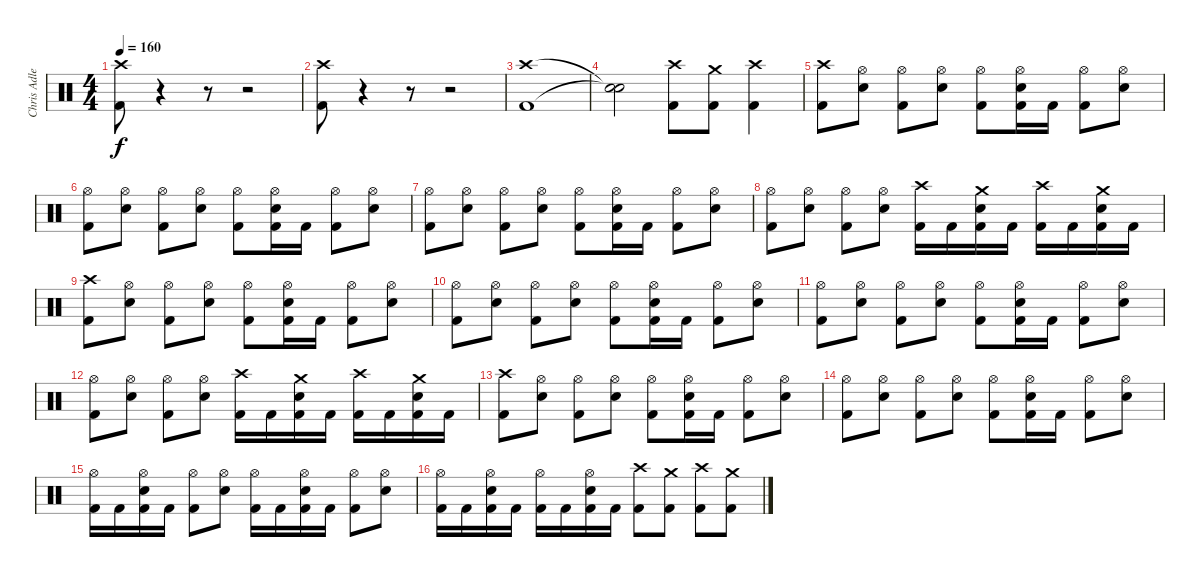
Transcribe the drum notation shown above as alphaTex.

\track ("Chris Adler" "Chris Adle") {instrument percussion}
\staff {score}
\articulation defaults
\ts (4 4)
\tempo 160
\clef neutral
\ks c
("Crash high (hit)" "Kick (hit) 2").8{dy f} r.4{volume 0} r.8 r.2 |
("Crash high (hit)" "Kick (hit) 2").8{volume 16} r.4{volume 0} r.8 r.2 |
("Crash high (hit)" "Kick (hit) 2").1{volume 16} |
("Snare (hit)"{t} "Snare (hit)"{t}).2 ("Crash high (hit)" "Kick (hit) 2").8 ("Crash medium (hit)" "Kick (hit) 2").8 ("Crash high (hit)" "Kick (hit) 2").4 |
("Crash high (hit)" "Kick (hit) 2").8 ("Hi-Hat (open)" "Electric Snare (hit)").8 ("Hi-Hat (open)" "Kick (hit) 2").8 ("Hi-Hat (open)" "Electric Snare (hit)").8 ("Hi-Hat (open)" "Kick (hit) 2").8 ("Hi-Hat (open)" "Electric Snare (hit)" "Kick (hit) 2").16 "Kick (hit) 2".16 ("Hi-Hat (open)" "Kick (hit) 2").8 ("Hi-Hat (open)" "Electric Snare (hit)").8 |
("Hi-Hat (open)" "Kick (hit) 2").8 ("Hi-Hat (open)" "Electric Snare (hit)").8 ("Hi-Hat (open)" "Kick (hit) 2").8 ("Hi-Hat (open)" "Electric Snare (hit)").8 ("Hi-Hat (open)" "Kick (hit) 2").8 ("Hi-Hat (open)" "Electric Snare (hit)" "Kick (hit) 2").16 "Kick (hit) 2".16 ("Hi-Hat (open)" "Kick (hit) 2").8 ("Hi-Hat (open)" "Electric Snare (hit)").8 |
("Hi-Hat (open)" "Kick (hit) 2").8 ("Hi-Hat (open)" "Electric Snare (hit)").8 ("Hi-Hat (open)" "Kick (hit) 2").8 ("Hi-Hat (open)" "Electric Snare (hit)").8 ("Hi-Hat (open)" "Kick (hit) 2").8 ("Hi-Hat (open)" "Electric Snare (hit)" "Kick (hit) 2").16 "Kick (hit) 2".16 ("Hi-Hat (open)" "Kick (hit) 2").8 ("Hi-Hat (open)" "Electric Snare (hit)").8 |
("Hi-Hat (open)" "Kick (hit) 2").8 ("Hi-Hat (open)" "Electric Snare (hit)").8 ("Hi-Hat (open)" "Kick (hit) 2").8 ("Hi-Hat (open)" "Electric Snare (hit)").8 ("Crash high (hit)" "Kick (hit) 2").16 "Kick (hit) 2".16 ("Crash medium (hit)" "Electric Snare (hit)" "Kick (hit) 2").16 "Kick (hit) 2".16 ("Crash high (hit)" "Kick (hit) 2").16 "Kick (hit) 2".16 ("Crash medium (hit)" "Electric Snare (hit)" "Kick (hit) 2").16 "Kick (hit) 2".16 |
("Crash high (hit)" "Kick (hit) 2").8 ("Hi-Hat (open)" "Electric Snare (hit)").8 ("Hi-Hat (open)" "Kick (hit) 2").8 ("Hi-Hat (open)" "Electric Snare (hit)").8 ("Hi-Hat (open)" "Kick (hit) 2").8 ("Hi-Hat (open)" "Electric Snare (hit)" "Kick (hit) 2").16 "Kick (hit) 2".16 ("Hi-Hat (open)" "Kick (hit) 2").8 ("Hi-Hat (open)" "Electric Snare (hit)").8 |
("Hi-Hat (open)" "Kick (hit) 2").8 ("Hi-Hat (open)" "Electric Snare (hit)").8 ("Hi-Hat (open)" "Kick (hit) 2").8 ("Hi-Hat (open)" "Electric Snare (hit)").8 ("Hi-Hat (open)" "Kick (hit) 2").8 ("Hi-Hat (open)" "Electric Snare (hit)" "Kick (hit) 2").16 "Kick (hit) 2".16 ("Hi-Hat (open)" "Kick (hit) 2").8 ("Hi-Hat (open)" "Electric Snare (hit)").8 |
("Hi-Hat (open)" "Kick (hit) 2").8 ("Hi-Hat (open)" "Electric Snare (hit)").8 ("Hi-Hat (open)" "Kick (hit) 2").8 ("Hi-Hat (open)" "Electric Snare (hit)").8 ("Hi-Hat (open)" "Kick (hit) 2").8 ("Hi-Hat (open)" "Electric Snare (hit)" "Kick (hit) 2").16 "Kick (hit) 2".16 ("Hi-Hat (open)" "Kick (hit) 2").8 ("Hi-Hat (open)" "Electric Snare (hit)").8 |
("Hi-Hat (open)" "Kick (hit) 2").8 ("Hi-Hat (open)" "Electric Snare (hit)").8 ("Hi-Hat (open)" "Kick (hit) 2").8 ("Hi-Hat (open)" "Electric Snare (hit)").8 ("Crash high (hit)" "Kick (hit) 2").16 "Kick (hit) 2".16 ("Crash medium (hit)" "Electric Snare (hit)" "Kick (hit) 2").16 "Kick (hit) 2".16 ("Crash high (hit)" "Kick (hit) 2").16 "Kick (hit) 2".16 ("Crash medium (hit)" "Electric Snare (hit)" "Kick (hit) 2").16 "Kick (hit) 2".16 |
("Crash high (hit)" "Kick (hit) 2").8 ("Hi-Hat (open)" "Electric Snare (hit)").8 ("Hi-Hat (open)" "Kick (hit) 2").8 ("Hi-Hat (open)" "Electric Snare (hit)").8 ("Hi-Hat (open)" "Kick (hit) 2").8 ("Hi-Hat (open)" "Electric Snare (hit)" "Kick (hit) 2").16 "Kick (hit) 2".16 ("Hi-Hat (open)" "Kick (hit) 2").8 ("Hi-Hat (open)" "Electric Snare (hit)").8 |
("Hi-Hat (open)" "Kick (hit) 2").8 ("Hi-Hat (open)" "Electric Snare (hit)").8 ("Hi-Hat (open)" "Kick (hit) 2").8 ("Hi-Hat (open)" "Electric Snare (hit)").8 ("Hi-Hat (open)" "Kick (hit) 2").8 ("Hi-Hat (open)" "Electric Snare (hit)" "Kick (hit) 2").16 "Kick (hit) 2".16 ("Hi-Hat (open)" "Kick (hit) 2").8 ("Hi-Hat (open)" "Electric Snare (hit)").8 |
("Hi-Hat (open)" "Kick (hit) 2").16 "Kick (hit) 2".16 ("Hi-Hat (open)" "Electric Snare (hit)" "Kick (hit) 2").16 "Kick (hit) 2".16 ("Hi-Hat (open)" "Kick (hit) 2").8 ("Hi-Hat (open)" "Electric Snare (hit)").8 ("Hi-Hat (open)" "Kick (hit) 2").16 "Kick (hit) 2".16 ("Hi-Hat (open)" "Electric Snare (hit)" "Kick (hit) 2").16 "Kick (hit) 2".16 ("Hi-Hat (open)" "Kick (hit) 2").8 ("Hi-Hat (open)" "Electric Snare (hit)").8 |
("Hi-Hat (open)" "Kick (hit) 2").16 "Kick (hit) 2".16 ("Hi-Hat (open)" "Electric Snare (hit)" "Kick (hit) 2").16 "Kick (hit) 2".16 ("Hi-Hat (open)" "Kick (hit) 2").16 "Kick (hit) 2".16 ("Hi-Hat (open)" "Electric Snare (hit)" "Kick (hit) 2").16 "Kick (hit) 2".16 ("Crash high (hit)" "Kick (hit) 2").8 ("Crash medium (hit)" "Kick (hit) 2").8 ("Crash high (hit)" "Kick (hit) 2").8 ("Crash medium (hit)" "Kick (hit) 2").8
